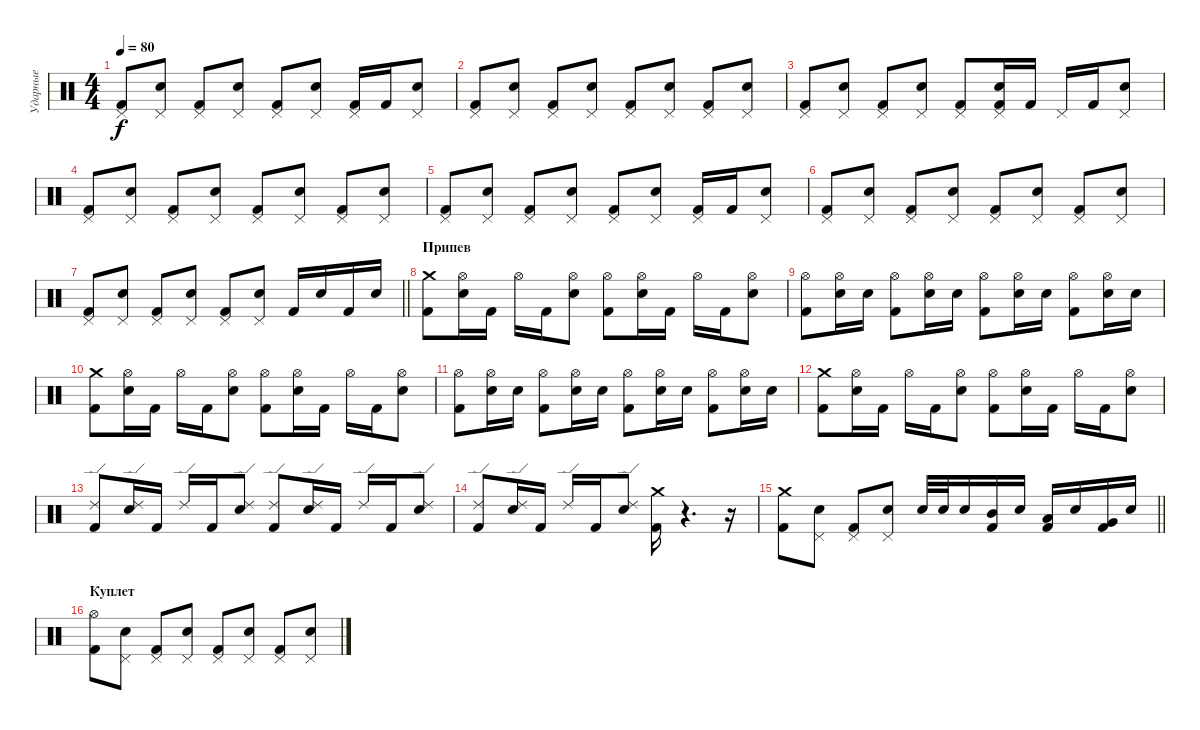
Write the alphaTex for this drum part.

\track ("Ударные" "Ударные") {instrument percussion}
\staff {score}
\articulation defaults
\ts (4 4)
\tempo 80
\clef neutral
\ks c
("Pedal Hi-Hat (hit)" "Kick (hit) 2").8{dy f} ("Pedal Hi-Hat (hit)" "Electric Snare (hit)").8 ("Pedal Hi-Hat (hit)" "Kick (hit) 2").8 ("Pedal Hi-Hat (hit)" "Electric Snare (hit)").8 ("Pedal Hi-Hat (hit)" "Kick (hit) 2").8 ("Pedal Hi-Hat (hit)" "Electric Snare (hit)").8 ("Pedal Hi-Hat (hit)" "Kick (hit) 2").16 "Kick (hit) 2".16 ("Pedal Hi-Hat (hit)" "Electric Snare (hit)").8 |
("Pedal Hi-Hat (hit)" "Kick (hit) 2").8 ("Pedal Hi-Hat (hit)" "Electric Snare (hit)").8 ("Pedal Hi-Hat (hit)" "Kick (hit) 2").8 ("Pedal Hi-Hat (hit)" "Electric Snare (hit)").8 ("Pedal Hi-Hat (hit)" "Kick (hit) 2").8 ("Pedal Hi-Hat (hit)" "Electric Snare (hit)").8 ("Pedal Hi-Hat (hit)" "Kick (hit) 2").8 ("Pedal Hi-Hat (hit)" "Electric Snare (hit)").8 |
("Pedal Hi-Hat (hit)" "Kick (hit) 2").8 ("Pedal Hi-Hat (hit)" "Electric Snare (hit)").8 ("Pedal Hi-Hat (hit)" "Kick (hit) 2").8 ("Pedal Hi-Hat (hit)" "Electric Snare (hit)").8 ("Pedal Hi-Hat (hit)" "Kick (hit) 2").8 ("Pedal Hi-Hat (hit)" "Electric Snare (hit)" "Kick (hit) 2").16 "Kick (hit) 2".16 "Pedal Hi-Hat (hit)".16 "Kick (hit) 2".16 ("Pedal Hi-Hat (hit)" "Electric Snare (hit)").8 |
("Pedal Hi-Hat (hit)" "Kick (hit) 2").8 ("Pedal Hi-Hat (hit)" "Electric Snare (hit)").8 ("Pedal Hi-Hat (hit)" "Kick (hit) 2").8 ("Pedal Hi-Hat (hit)" "Electric Snare (hit)").8 ("Pedal Hi-Hat (hit)" "Kick (hit) 2").8 ("Pedal Hi-Hat (hit)" "Electric Snare (hit)").8 ("Pedal Hi-Hat (hit)" "Kick (hit) 2").8 ("Pedal Hi-Hat (hit)" "Electric Snare (hit)").8 |
("Pedal Hi-Hat (hit)" "Kick (hit) 2").8 ("Pedal Hi-Hat (hit)" "Electric Snare (hit)").8 ("Pedal Hi-Hat (hit)" "Kick (hit) 2").8 ("Pedal Hi-Hat (hit)" "Electric Snare (hit)").8 ("Pedal Hi-Hat (hit)" "Kick (hit) 2").8 ("Pedal Hi-Hat (hit)" "Electric Snare (hit)").8 ("Pedal Hi-Hat (hit)" "Kick (hit) 2").16 "Kick (hit) 2".16 ("Pedal Hi-Hat (hit)" "Electric Snare (hit)").8 |
("Pedal Hi-Hat (hit)" "Kick (hit) 2").8 ("Pedal Hi-Hat (hit)" "Electric Snare (hit)").8 ("Pedal Hi-Hat (hit)" "Kick (hit) 2").8 ("Pedal Hi-Hat (hit)" "Electric Snare (hit)").8 ("Pedal Hi-Hat (hit)" "Kick (hit) 2").8 ("Pedal Hi-Hat (hit)" "Electric Snare (hit)").8 ("Pedal Hi-Hat (hit)" "Kick (hit) 2").8 ("Pedal Hi-Hat (hit)" "Electric Snare (hit)").8 |
\barLineRight lightlight
("Pedal Hi-Hat (hit)" "Kick (hit) 2").8 ("Pedal Hi-Hat (hit)" "Electric Snare (hit)").8 ("Pedal Hi-Hat (hit)" "Kick (hit) 2").8 ("Pedal Hi-Hat (hit)" "Electric Snare (hit)").8 ("Pedal Hi-Hat (hit)" "Kick (hit) 2").8 ("Pedal Hi-Hat (hit)" "Electric Snare (hit)").8 "Kick (hit) 2".16 "Electric Snare (hit)".16 "Kick (hit) 2".16 "Electric Snare (hit)".16 |
\section ("" "Припев")
("Crash medium (hit)" "Kick (hit) 2").8 ("Hi-Hat (open)" "Electric Snare (hit)").16 "Kick (hit) 2".16 "Hi-Hat (open)".16 "Kick (hit) 2".16 ("Hi-Hat (open)" "Electric Snare (hit)").8 ("Hi-Hat (open)" "Kick (hit) 2").8 ("Hi-Hat (open)" "Electric Snare (hit)").16 "Kick (hit) 2".16 "Hi-Hat (open)".16 "Kick (hit) 2".16 ("Hi-Hat (open)" "Electric Snare (hit)").8 |
("Hi-Hat (open)" "Kick (hit) 2").8 ("Hi-Hat (open)" "Electric Snare (hit)").16 "Electric Snare (hit)".16 ("Hi-Hat (open)" "Kick (hit) 2").8 ("Hi-Hat (open)" "Electric Snare (hit)").16 "Electric Snare (hit)".16 ("Hi-Hat (open)" "Kick (hit) 2").8 ("Hi-Hat (open)" "Electric Snare (hit)").16 "Electric Snare (hit)".16 ("Hi-Hat (open)" "Kick (hit) 2").8 ("Hi-Hat (open)" "Electric Snare (hit)").16 "Electric Snare (hit)".16 |
("Crash medium (hit)" "Kick (hit) 2").8 ("Hi-Hat (open)" "Electric Snare (hit)").16 "Kick (hit) 2".16 "Hi-Hat (open)".16 "Kick (hit) 2".16 ("Hi-Hat (open)" "Electric Snare (hit)").8 ("Hi-Hat (open)" "Kick (hit) 2").8 ("Hi-Hat (open)" "Electric Snare (hit)").16 "Kick (hit) 2".16 "Hi-Hat (open)".16 "Kick (hit) 2".16 ("Hi-Hat (open)" "Electric Snare (hit)").8 |
("Hi-Hat (open)" "Kick (hit) 2").8 ("Hi-Hat (open)" "Electric Snare (hit)").16 "Electric Snare (hit)".16 ("Hi-Hat (open)" "Kick (hit) 2").8 ("Hi-Hat (open)" "Electric Snare (hit)").16 "Electric Snare (hit)".16 ("Hi-Hat (open)" "Kick (hit) 2").8 ("Hi-Hat (open)" "Electric Snare (hit)").16 "Electric Snare (hit)".16 ("Hi-Hat (open)" "Kick (hit) 2").8 ("Hi-Hat (open)" "Electric Snare (hit)").16 "Electric Snare (hit)".16 |
("Crash medium (hit)" "Kick (hit) 2").8 ("Hi-Hat (open)" "Electric Snare (hit)").16 "Kick (hit) 2".16 "Hi-Hat (open)".16 "Kick (hit) 2".16 ("Hi-Hat (open)" "Electric Snare (hit)").8 ("Hi-Hat (open)" "Kick (hit) 2").8 ("Hi-Hat (open)" "Electric Snare (hit)").16 "Kick (hit) 2".16 "Hi-Hat (open)".16 "Kick (hit) 2".16 ("Hi-Hat (open)" "Electric Snare (hit)").8 |
("Ride (edge) 2" "Kick (hit) 2").8 ("Ride (edge) 2" "Electric Snare (hit)").16 "Kick (hit) 2".16 "Ride (edge) 2".16 "Kick (hit) 2".16 ("Ride (edge) 2" "Electric Snare (hit)").8 ("Ride (edge) 2" "Kick (hit) 2").8 ("Ride (edge) 2" "Electric Snare (hit)").16 "Kick (hit) 2".16 "Ride (edge) 2".16 "Kick (hit) 2".16 ("Ride (edge) 2" "Electric Snare (hit)").8 |
("Ride (edge) 2" "Kick (hit) 2").8 ("Ride (edge) 2" "Electric Snare (hit)").16 "Kick (hit) 2".16 "Ride (edge) 2".16 "Kick (hit) 2".16 ("Ride (edge) 2" "Electric Snare (hit)").8 ("Crash medium (hit)" "Kick (hit) 2").16 r.4{d} r.16 |
\barLineRight lightlight
("Crash medium (hit)" "Kick (hit) 2").8 ("Pedal Hi-Hat (hit)" "Electric Snare (hit)").8 ("Pedal Hi-Hat (hit)" "Kick (hit) 2").8 ("Pedal Hi-Hat (hit)" "Electric Snare (hit)").8 "Electric Snare (hit)".32 "Electric Snare (hit)".32 "Electric Snare (hit)".16 ("Mid Tom (hit)" "Kick (hit) 2").16 "Electric Snare (hit)".16 ("Low Tom (hit)" "Kick (hit) 2").16 "Electric Snare (hit)".16 ("Very Low Tom (hit)" "Kick (hit) 2").16 "Electric Snare (hit)".16 |
\section ("" "Куплет")
("Hi-Hat (open)" "Kick (hit) 2").8 ("Pedal Hi-Hat (hit)" "Electric Snare (hit)").8 ("Pedal Hi-Hat (hit)" "Kick (hit) 2").8 ("Pedal Hi-Hat (hit)" "Electric Snare (hit)").8 ("Pedal Hi-Hat (hit)" "Kick (hit) 2").8 ("Pedal Hi-Hat (hit)" "Electric Snare (hit)").8 ("Pedal Hi-Hat (hit)" "Kick (hit) 2").8 ("Pedal Hi-Hat (hit)" "Electric Snare (hit)").8
